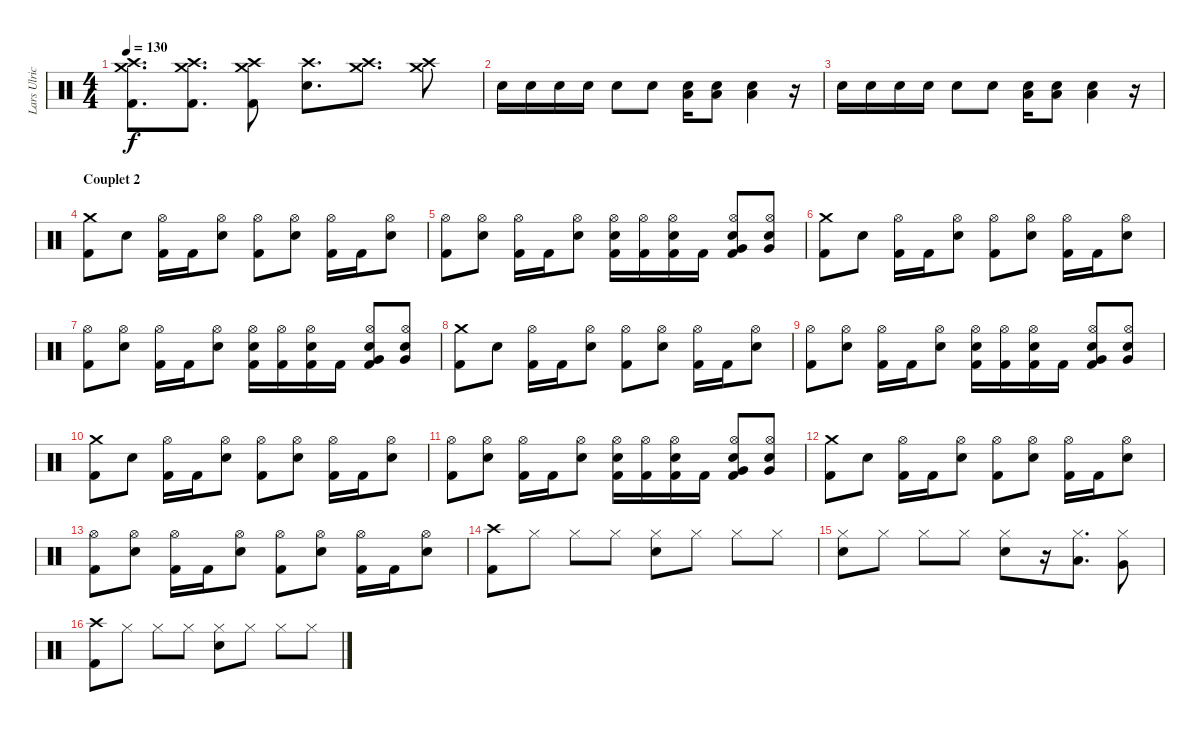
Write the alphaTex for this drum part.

\track ("Lars Ulrich" "Lars Ulric") {instrument percussion}
\staff {score}
\articulation defaults
\ts (4 4)
\tempo 130
\clef neutral
\ks c
("Crash medium (hit)" "Crash high (hit)" "Kick (hit) 2").8{d dy f} ("Crash medium (hit)" "Crash high (hit)" "Kick (hit) 2").8{d} ("Crash medium (hit)" "Crash high (hit)" "Kick (hit) 2").8 ("Crash high (hit)" "Electric Snare (hit)").8{d} ("Crash medium (hit)" "Crash high (hit)").8{d} ("Crash medium (hit)" "Crash high (hit)").8 |
"Electric Snare (hit)".16 "Electric Snare (hit)".16 "Electric Snare (hit)".16 "Electric Snare (hit)".16 "Electric Snare (hit)".8 "Electric Snare (hit)".8 ("Electric Snare (hit)" "Low Floor Tom (hit)").16 ("Electric Snare (hit)" "Low Floor Tom (hit)").8 ("Electric Snare (hit)" "Low Floor Tom (hit)").4 r.16 |
"Electric Snare (hit)".16 "Electric Snare (hit)".16 "Electric Snare (hit)".16 "Electric Snare (hit)".16 "Electric Snare (hit)".8 "Electric Snare (hit)".8 ("Electric Snare (hit)" "Low Floor Tom (hit)").16 ("Electric Snare (hit)" "Low Floor Tom (hit)").8 ("Electric Snare (hit)" "Low Floor Tom (hit)").4 r.16 |
\section ("" "Couplet 2")
("Crash medium (hit)" "Kick (hit) 2").8 "Electric Snare (hit)".8 ("Hi-Hat (open)" "Kick (hit) 2").16 "Kick (hit) 2".16 ("Hi-Hat (open)" "Electric Snare (hit)").8 ("Hi-Hat (open)" "Kick (hit) 2").8 ("Hi-Hat (open)" "Electric Snare (hit)").8 ("Hi-Hat (open)" "Kick (hit) 2").16 "Kick (hit) 2".16 ("Hi-Hat (open)" "Electric Snare (hit)").8 |
("Hi-Hat (open)" "Kick (hit) 2").8 ("Hi-Hat (open)" "Electric Snare (hit)").8 ("Hi-Hat (open)" "Kick (hit) 2").16 "Kick (hit) 2".16 ("Hi-Hat (open)" "Electric Snare (hit)").8 ("Hi-Hat (open)" "Electric Snare (hit)" "Kick (hit) 2").16 ("Hi-Hat (open)" "Kick (hit) 2").16 ("Hi-Hat (open)" "Electric Snare (hit)" "Kick (hit) 2").16 "Kick (hit) 2".16 ("Hi-Hat (open)" "Electric Snare (hit)" "Very Low Tom (hit)" "Kick (hit) 2").8 ("Hi-Hat (open)" "Electric Snare (hit)" "Very Low Tom (hit)").8 |
("Crash medium (hit)" "Kick (hit) 2").8 "Electric Snare (hit)".8 ("Hi-Hat (open)" "Kick (hit) 2").16 "Kick (hit) 2".16 ("Hi-Hat (open)" "Electric Snare (hit)").8 ("Hi-Hat (open)" "Kick (hit) 2").8 ("Hi-Hat (open)" "Electric Snare (hit)").8 ("Hi-Hat (open)" "Kick (hit) 2").16 "Kick (hit) 2".16 ("Hi-Hat (open)" "Electric Snare (hit)").8 |
("Hi-Hat (open)" "Kick (hit) 2").8 ("Hi-Hat (open)" "Electric Snare (hit)").8 ("Hi-Hat (open)" "Kick (hit) 2").16 "Kick (hit) 2".16 ("Hi-Hat (open)" "Electric Snare (hit)").8 ("Hi-Hat (open)" "Electric Snare (hit)" "Kick (hit) 2").16 ("Hi-Hat (open)" "Kick (hit) 2").16 ("Hi-Hat (open)" "Electric Snare (hit)" "Kick (hit) 2").16 "Kick (hit) 2".16 ("Hi-Hat (open)" "Electric Snare (hit)" "Very Low Tom (hit)" "Kick (hit) 2").8 ("Hi-Hat (open)" "Electric Snare (hit)" "Very Low Tom (hit)").8 |
("Crash medium (hit)" "Kick (hit) 2").8 "Electric Snare (hit)".8 ("Hi-Hat (open)" "Kick (hit) 2").16 "Kick (hit) 2".16 ("Hi-Hat (open)" "Electric Snare (hit)").8 ("Hi-Hat (open)" "Kick (hit) 2").8 ("Hi-Hat (open)" "Electric Snare (hit)").8 ("Hi-Hat (open)" "Kick (hit) 2").16 "Kick (hit) 2".16 ("Hi-Hat (open)" "Electric Snare (hit)").8 |
("Hi-Hat (open)" "Kick (hit) 2").8 ("Hi-Hat (open)" "Electric Snare (hit)").8 ("Hi-Hat (open)" "Kick (hit) 2").16 "Kick (hit) 2".16 ("Hi-Hat (open)" "Electric Snare (hit)").8 ("Hi-Hat (open)" "Electric Snare (hit)" "Kick (hit) 2").16 ("Hi-Hat (open)" "Kick (hit) 2").16 ("Hi-Hat (open)" "Electric Snare (hit)" "Kick (hit) 2").16 "Kick (hit) 2".16 ("Hi-Hat (open)" "Electric Snare (hit)" "Very Low Tom (hit)" "Kick (hit) 2").8 ("Hi-Hat (open)" "Electric Snare (hit)" "Very Low Tom (hit)").8 |
("Crash medium (hit)" "Kick (hit) 2").8 "Electric Snare (hit)".8 ("Hi-Hat (open)" "Kick (hit) 2").16 "Kick (hit) 2".16 ("Hi-Hat (open)" "Electric Snare (hit)").8 ("Hi-Hat (open)" "Kick (hit) 2").8 ("Hi-Hat (open)" "Electric Snare (hit)").8 ("Hi-Hat (open)" "Kick (hit) 2").16 "Kick (hit) 2".16 ("Hi-Hat (open)" "Electric Snare (hit)").8 |
("Hi-Hat (open)" "Kick (hit) 2").8 ("Hi-Hat (open)" "Electric Snare (hit)").8 ("Hi-Hat (open)" "Kick (hit) 2").16 "Kick (hit) 2".16 ("Hi-Hat (open)" "Electric Snare (hit)").8 ("Hi-Hat (open)" "Electric Snare (hit)" "Kick (hit) 2").16 ("Hi-Hat (open)" "Kick (hit) 2").16 ("Hi-Hat (open)" "Electric Snare (hit)" "Kick (hit) 2").16 "Kick (hit) 2".16 ("Hi-Hat (open)" "Electric Snare (hit)" "Very Low Tom (hit)" "Kick (hit) 2").8 ("Hi-Hat (open)" "Electric Snare (hit)" "Very Low Tom (hit)").8 |
("Crash medium (hit)" "Kick (hit) 2").8 "Electric Snare (hit)".8 ("Hi-Hat (open)" "Kick (hit) 2").16 "Kick (hit) 2".16 ("Hi-Hat (open)" "Electric Snare (hit)").8 ("Hi-Hat (open)" "Kick (hit) 2").8 ("Hi-Hat (open)" "Electric Snare (hit)").8 ("Hi-Hat (open)" "Kick (hit) 2").16 "Kick (hit) 2".16 ("Hi-Hat (open)" "Electric Snare (hit)").8 |
("Hi-Hat (open)" "Kick (hit) 2").8 ("Hi-Hat (open)" "Electric Snare (hit)").8 ("Hi-Hat (open)" "Kick (hit) 2").16 "Kick (hit) 2".16 ("Hi-Hat (open)" "Electric Snare (hit)").8 ("Hi-Hat (open)" "Kick (hit) 2").8 ("Hi-Hat (open)" "Electric Snare (hit)").8 ("Hi-Hat (open)" "Kick (hit) 2").16 "Kick (hit) 2".16 ("Hi-Hat (open)" "Electric Snare (hit)").8 |
("Crash high (hit)" "Kick (hit) 2").8 "Hi-Hat (closed)".8 "Hi-Hat (closed)".8 "Hi-Hat (closed)".8 ("Hi-Hat (closed)" "Electric Snare (hit)").8 "Hi-Hat (closed)".8 "Hi-Hat (closed)".8 "Hi-Hat (closed)".8 |
("Hi-Hat (closed)" "Electric Snare (hit)").8 "Hi-Hat (closed)".8 "Hi-Hat (closed)".8 "Hi-Hat (closed)".8 ("Hi-Hat (closed)" "Electric Snare (hit)").8 r.16 ("Hi-Hat (closed)" "Low Tom (hit)").8{d} ("Hi-Hat (closed)" "Very Low Tom (hit)").8 |
("Crash high (hit)" "Kick (hit) 2").8 "Hi-Hat (closed)".8 "Hi-Hat (closed)".8 "Hi-Hat (closed)".8 ("Hi-Hat (closed)" "Electric Snare (hit)").8 "Hi-Hat (closed)".8 "Hi-Hat (closed)".8 "Hi-Hat (closed)".8
